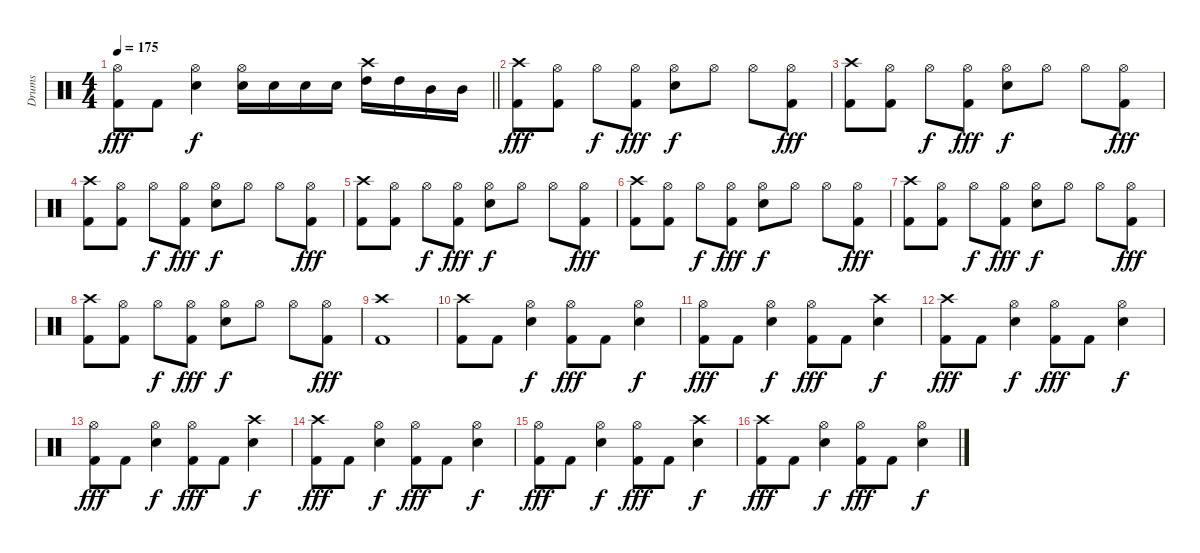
\track ("Drums" "Drums") {instrument percussion}
\staff {score}
\articulation defaults
\ts (4 4)
\tempo 175
\clef neutral
\barLineRight lightlight
\ks c
("Hi-Hat (open)" "Kick (hit) 2").8{dy fff} "Kick (hit) 2".8 ("Hi-Hat (open)" "Electric Snare (hit)").4{dy f} ("Hi-Hat (open)" "Electric Snare (hit)").16 "Electric Snare (hit)".16 "Electric Snare (hit)".16 "Electric Snare (hit)".16 ("Crash high (hit)" "High Tom (hit)").16 "High Tom (hit)".16 "Mid Tom (hit)".16 "Mid Tom (hit)".16 |
("Crash high (hit)" "Kick (hit) 2").8{dy fff} ("Hi-Hat (open)" "Kick (hit) 2").8 "Hi-Hat (open)".8{dy f} ("Hi-Hat (open)" "Kick (hit) 2").8{dy fff} ("Hi-Hat (open)" "Electric Snare (hit)").8{dy f} "Hi-Hat (open)".8 "Hi-Hat (open)".8 ("Hi-Hat (open)" "Kick (hit) 2").8{dy fff} |
("Crash high (hit)" "Kick (hit) 2").8 ("Hi-Hat (open)" "Kick (hit) 2").8 "Hi-Hat (open)".8{dy f} ("Hi-Hat (open)" "Kick (hit) 2").8{dy fff} ("Hi-Hat (open)" "Electric Snare (hit)").8{dy f} "Hi-Hat (open)".8 "Hi-Hat (open)".8 ("Hi-Hat (open)" "Kick (hit) 2").8{dy fff} |
("Crash high (hit)" "Kick (hit) 2").8 ("Hi-Hat (open)" "Kick (hit) 2").8 "Hi-Hat (open)".8{dy f} ("Hi-Hat (open)" "Kick (hit) 2").8{dy fff} ("Hi-Hat (open)" "Electric Snare (hit)").8{dy f} "Hi-Hat (open)".8 "Hi-Hat (open)".8 ("Hi-Hat (open)" "Kick (hit) 2").8{dy fff} |
("Crash high (hit)" "Kick (hit) 2").8 ("Hi-Hat (open)" "Kick (hit) 2").8 "Hi-Hat (open)".8{dy f} ("Hi-Hat (open)" "Kick (hit) 2").8{dy fff} ("Hi-Hat (open)" "Electric Snare (hit)").8{dy f} "Hi-Hat (open)".8 "Hi-Hat (open)".8 ("Hi-Hat (open)" "Kick (hit) 2").8{dy fff} |
("Crash high (hit)" "Kick (hit) 2").8 ("Hi-Hat (open)" "Kick (hit) 2").8 "Hi-Hat (open)".8{dy f} ("Hi-Hat (open)" "Kick (hit) 2").8{dy fff} ("Hi-Hat (open)" "Electric Snare (hit)").8{dy f} "Hi-Hat (open)".8 "Hi-Hat (open)".8 ("Hi-Hat (open)" "Kick (hit) 2").8{dy fff} |
("Crash high (hit)" "Kick (hit) 2").8 ("Hi-Hat (open)" "Kick (hit) 2").8 "Hi-Hat (open)".8{dy f} ("Hi-Hat (open)" "Kick (hit) 2").8{dy fff} ("Hi-Hat (open)" "Electric Snare (hit)").8{dy f} "Hi-Hat (open)".8 "Hi-Hat (open)".8 ("Hi-Hat (open)" "Kick (hit) 2").8{dy fff} |
("Crash high (hit)" "Kick (hit) 2").8 ("Hi-Hat (open)" "Kick (hit) 2").8 "Hi-Hat (open)".8{dy f} ("Hi-Hat (open)" "Kick (hit) 2").8{dy fff} ("Hi-Hat (open)" "Electric Snare (hit)").8{dy f} "Hi-Hat (open)".8 "Hi-Hat (open)".8 ("Hi-Hat (open)" "Kick (hit) 2").8{dy fff} |
("Crash high (hit)" "Kick (hit) 2").1 |
("Crash high (hit)" "Kick (hit) 2").8 "Kick (hit) 2".8 ("Hi-Hat (open)" "Electric Snare (hit)").4{dy f} ("Hi-Hat (open)" "Kick (hit) 2").8{dy fff} "Kick (hit) 2".8 ("Hi-Hat (open)" "Electric Snare (hit)").4{dy f} |
("Hi-Hat (open)" "Kick (hit) 2").8{dy fff} "Kick (hit) 2".8 ("Hi-Hat (open)" "Electric Snare (hit)").4{dy f} ("Hi-Hat (open)" "Kick (hit) 2").8{dy fff} "Kick (hit) 2".8 ("Crash high (hit)" "Electric Snare (hit)").4{dy f} |
("Crash high (hit)" "Kick (hit) 2").8{dy fff} "Kick (hit) 2".8 ("Hi-Hat (open)" "Electric Snare (hit)").4{dy f} ("Hi-Hat (open)" "Kick (hit) 2").8{dy fff} "Kick (hit) 2".8 ("Hi-Hat (open)" "Electric Snare (hit)").4{dy f} |
("Hi-Hat (open)" "Kick (hit) 2").8{dy fff} "Kick (hit) 2".8 ("Hi-Hat (open)" "Electric Snare (hit)").4{dy f} ("Hi-Hat (open)" "Kick (hit) 2").8{dy fff} "Kick (hit) 2".8 ("Crash high (hit)" "Electric Snare (hit)").4{dy f} |
("Crash high (hit)" "Kick (hit) 2").8{dy fff} "Kick (hit) 2".8 ("Hi-Hat (open)" "Electric Snare (hit)").4{dy f} ("Hi-Hat (open)" "Kick (hit) 2").8{dy fff} "Kick (hit) 2".8 ("Hi-Hat (open)" "Electric Snare (hit)").4{dy f} |
("Hi-Hat (open)" "Kick (hit) 2").8{dy fff} "Kick (hit) 2".8 ("Hi-Hat (open)" "Electric Snare (hit)").4{dy f} ("Hi-Hat (open)" "Kick (hit) 2").8{dy fff} "Kick (hit) 2".8 ("Crash high (hit)" "Electric Snare (hit)").4{dy f} |
("Crash high (hit)" "Kick (hit) 2").8{dy fff} "Kick (hit) 2".8 ("Hi-Hat (open)" "Electric Snare (hit)").4{dy f} ("Hi-Hat (open)" "Kick (hit) 2").8{dy fff} "Kick (hit) 2".8 ("Hi-Hat (open)" "Electric Snare (hit)").4{dy f}
